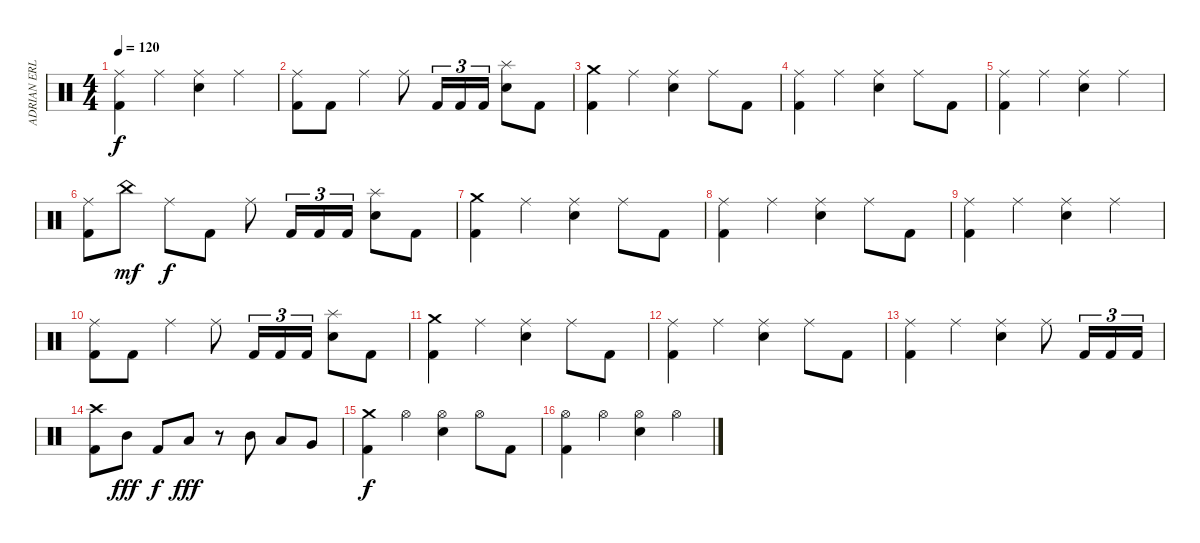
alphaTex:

\track ("ADRIAN ERLANDSSON" "ADRIAN ERL") {instrument percussion}
\staff {score}
\articulation defaults
\ts (4 4)
\tempo 120
\clef neutral
\ks c
("Kick (hit) 2" "Ride (middle)").4{dy f} "Ride (middle)".4 ("Snare (hit) 2" "Ride (middle)").4 "Ride (middle)".4 |
("Kick (hit) 2" "Ride (middle)").8 "Kick (hit) 2".8 "Ride (middle)".4 "Ride (middle)".8 "Kick (hit) 2".16{tu (3 2)} "Kick (hit) 2".16{tu (3 2)} "Kick (hit) 2".16{tu (3 2)} ("Snare (hit) 2" "Splash (hit)").8 "Kick (hit) 2".8 |
("Kick (hit) 2" "Crash medium (hit)").4 "Ride (middle)".4 ("Snare (hit) 2" "Ride (middle)").4 "Ride (middle)".8 "Kick (hit) 2".8 |
("Kick (hit) 2" "Ride (middle)").4 "Ride (middle)".4 ("Snare (hit) 2" "Ride (middle)").4 "Ride (middle)".8 "Kick (hit) 2".8 |
("Kick (hit) 2" "Ride (middle)").4 "Ride (middle)".4 ("Snare (hit) 2" "Ride (middle)").4 "Ride (middle)".4 |
("Kick (hit) 2" "Ride (middle)").8 "China (hit)".8{dy mf} "Ride (middle)".8{dy f} "Kick (hit) 2".8 "Ride (middle)".8 "Kick (hit) 2".16{tu (3 2)} "Kick (hit) 2".16{tu (3 2)} "Kick (hit) 2".16{tu (3 2)} ("Snare (hit) 2" "Splash (hit)").8 "Kick (hit) 2".8 |
("Kick (hit) 2" "Crash medium (hit)").4 "Ride (middle)".4 ("Snare (hit) 2" "Ride (middle)").4 "Ride (middle)".8 "Kick (hit) 2".8 |
("Kick (hit) 2" "Ride (middle)").4 "Ride (middle)".4 ("Snare (hit) 2" "Ride (middle)").4 "Ride (middle)".8 "Kick (hit) 2".8 |
("Kick (hit) 2" "Ride (middle)").4 "Ride (middle)".4 ("Snare (hit) 2" "Ride (middle)").4 "Ride (middle)".4 |
("Kick (hit) 2" "Ride (middle)").8 "Kick (hit) 2".8 "Ride (middle)".4 "Ride (middle)".8 "Kick (hit) 2".16{tu (3 2)} "Kick (hit) 2".16{tu (3 2)} "Kick (hit) 2".16{tu (3 2)} ("Snare (hit) 2" "Splash (hit)").8 "Kick (hit) 2".8 |
("Kick (hit) 2" "Crash medium (hit)").4 "Ride (middle)".4 ("Snare (hit) 2" "Ride (middle)").4 "Ride (middle)".8 "Kick (hit) 2".8 |
("Kick (hit) 2" "Ride (middle)").4 "Ride (middle)".4 ("Snare (hit) 2" "Ride (middle)").4 "Ride (middle)".8 "Kick (hit) 2".8 |
("Kick (hit) 2" "Ride (middle)").4 "Ride (middle)".4 ("Snare (hit) 2" "Ride (middle)").4 "Ride (middle)".8 "Kick (hit) 2".16{tu (3 2)} "Kick (hit) 2".16{tu (3 2)} "Kick (hit) 2".16{tu (3 2)} |
("Kick (hit) 2" "Crash high (hit)").8 "Mid Tom (hit)".8{dy fff} "Kick (hit) 2".8{dy f} "Low Tom (hit)".8{dy fff} r.8 "Mid Tom (hit)".8 "Low Tom (hit)".8 "Very Low Tom (hit)".8 |
("Kick (hit) 2" "Crash medium (hit)").4{dy f} "Hi-Hat (open)".4 ("Snare (hit) 2" "Hi-Hat (open)").4 "Hi-Hat (open)".8 "Kick (hit) 2".8 |
("Kick (hit) 2" "Hi-Hat (open)").4 "Hi-Hat (open)".4 ("Snare (hit) 2" "Hi-Hat (open)").4 "Hi-Hat (open)".4
